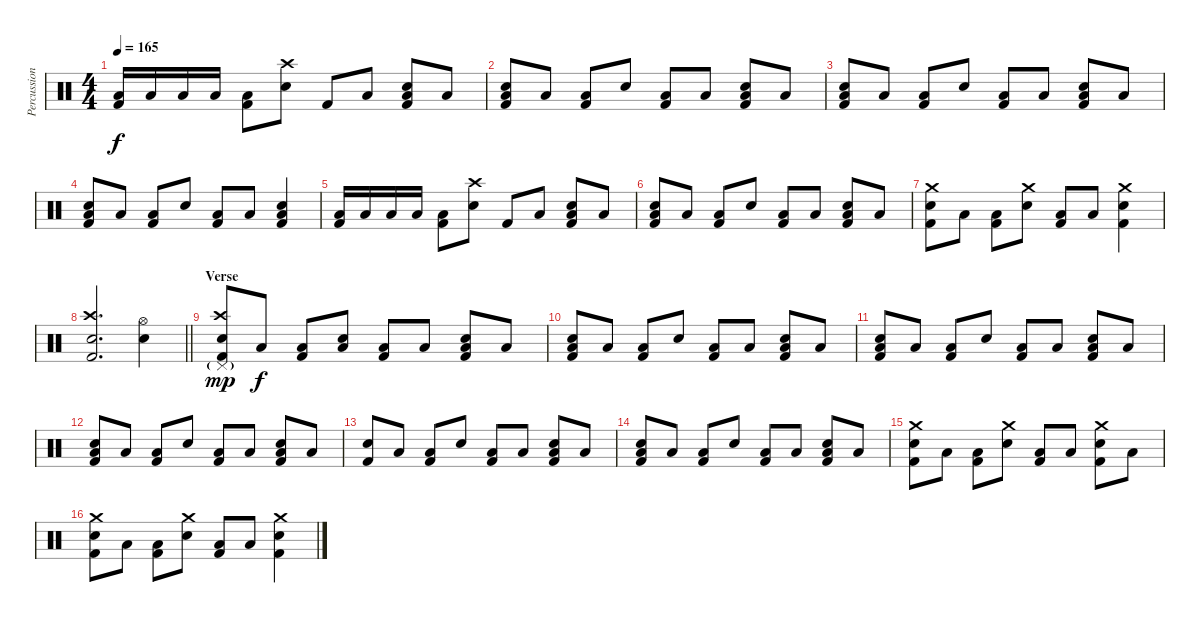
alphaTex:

\track ("Percussion" "Percussion") {instrument percussion}
\staff {score}
\articulation defaults
\ts (4 4)
\tempo 165
\clef neutral
\ks c
("Low Tom (hit)" "Kick (hit) 2").16{dy f} "Low Tom (hit)".16 "Low Tom (hit)".16 "Low Tom (hit)".16 ("Low Tom (hit)" "Kick (hit) 2").8 ("Crash high (hit)" "Electric Snare (hit)").8 "Kick (hit) 2".8 "Low Floor Tom (hit)".8 ("Electric Snare (hit)" "Low Floor Tom (hit)" "Kick (hit) 2").8 "Low Floor Tom (hit)".8 |
("Electric Snare (hit)" "Low Floor Tom (hit)" "Kick (hit) 2").8 "Low Floor Tom (hit)".8 ("Low Floor Tom (hit)" "Kick (hit) 2").8 "Electric Snare (hit)".8 ("Low Floor Tom (hit)" "Kick (hit) 2").8 "Low Floor Tom (hit)".8 ("Electric Snare (hit)" "Low Floor Tom (hit)" "Kick (hit) 2").8 "Low Floor Tom (hit)".8 |
("Electric Snare (hit)" "Low Floor Tom (hit)" "Kick (hit) 2").8 "Low Floor Tom (hit)".8 ("Low Floor Tom (hit)" "Kick (hit) 2").8 "Electric Snare (hit)".8 ("Low Floor Tom (hit)" "Kick (hit) 2").8 "Low Floor Tom (hit)".8 ("Electric Snare (hit)" "Low Floor Tom (hit)" "Kick (hit) 2").8 "Low Floor Tom (hit)".8 |
("Electric Snare (hit)" "Low Floor Tom (hit)" "Kick (hit) 2").8 "Low Floor Tom (hit)".8 ("Low Floor Tom (hit)" "Kick (hit) 2").8 "Electric Snare (hit)".8 ("Low Floor Tom (hit)" "Kick (hit) 2").8 "Low Floor Tom (hit)".8 ("Electric Snare (hit)" "Low Floor Tom (hit)" "Kick (hit) 2").4 |
("Low Tom (hit)" "Kick (hit) 2").16 "Low Tom (hit)".16 "Low Tom (hit)".16 "Low Tom (hit)".16 ("Low Tom (hit)" "Kick (hit) 2").8 ("Crash high (hit)" "Electric Snare (hit)").8 "Kick (hit) 2".8 "Low Floor Tom (hit)".8 ("Electric Snare (hit)" "Low Floor Tom (hit)" "Kick (hit) 2").8 "Low Floor Tom (hit)".8 |
("Electric Snare (hit)" "Low Floor Tom (hit)" "Kick (hit) 2").8 "Low Floor Tom (hit)".8 ("Low Floor Tom (hit)" "Kick (hit) 2").8 "Electric Snare (hit)".8 ("Low Floor Tom (hit)" "Kick (hit) 2").8 "Low Floor Tom (hit)".8 ("Electric Snare (hit)" "Low Floor Tom (hit)" "Kick (hit) 2").8 "Low Floor Tom (hit)".8 |
("Crash medium (hit)" "Electric Snare (hit)" "Kick (hit) 2").8 "Low Tom (hit)".8 ("Low Tom (hit)" "Kick (hit) 2").8 ("Crash medium (hit)" "Electric Snare (hit)").8 ("Low Tom (hit)" "Kick (hit) 2").8 "Low Tom (hit)".8 ("Crash medium (hit)" "Electric Snare (hit)" "Kick (hit) 2").4 |
\barLineRight lightlight
("Crash high (hit)" "Electric Snare (hit)" "Kick (hit) 2").2{d} ("Hi-Hat (open)" "Electric Snare (hit)").4 |
\section ("" "Verse")
("Crash high (hit)" "Pedal Hi-Hat (hit)"{g} "Electric Snare (hit)" "Kick (hit) 2").8{dy mp} "Low Floor Tom (hit)".8{dy f} ("Low Floor Tom (hit)" "Kick (hit) 2").8 ("Electric Snare (hit)" "Low Floor Tom (hit)").8 ("Low Floor Tom (hit)" "Kick (hit) 2").8 "Low Floor Tom (hit)".8 ("Electric Snare (hit)" "Low Floor Tom (hit)" "Kick (hit) 2").8 "Low Floor Tom (hit)".8 |
("Electric Snare (hit)" "Low Floor Tom (hit)" "Kick (hit) 2").8 "Low Floor Tom (hit)".8 ("Low Floor Tom (hit)" "Kick (hit) 2").8 "Electric Snare (hit)".8 ("Low Floor Tom (hit)" "Kick (hit) 2").8 "Low Floor Tom (hit)".8 ("Electric Snare (hit)" "Low Floor Tom (hit)" "Kick (hit) 2").8 "Low Floor Tom (hit)".8 |
("Electric Snare (hit)" "Low Floor Tom (hit)" "Kick (hit) 2").8 "Low Floor Tom (hit)".8 ("Low Floor Tom (hit)" "Kick (hit) 2").8 "Electric Snare (hit)".8 ("Low Floor Tom (hit)" "Kick (hit) 2").8 "Low Floor Tom (hit)".8 ("Electric Snare (hit)" "Low Floor Tom (hit)" "Kick (hit) 2").8 "Low Floor Tom (hit)".8 |
("Electric Snare (hit)" "Low Floor Tom (hit)" "Kick (hit) 2").8 "Low Floor Tom (hit)".8 ("Low Floor Tom (hit)" "Kick (hit) 2").8 "Electric Snare (hit)".8 ("Low Floor Tom (hit)" "Kick (hit) 2").8 "Low Floor Tom (hit)".8 ("Electric Snare (hit)" "Low Floor Tom (hit)" "Kick (hit) 2").8 "Low Floor Tom (hit)".8 |
("Electric Snare (hit)" "Kick (hit) 2").8 "Low Floor Tom (hit)".8 ("Low Floor Tom (hit)" "Kick (hit) 2").8 "Electric Snare (hit)".8 ("Low Floor Tom (hit)" "Kick (hit) 2").8 "Low Floor Tom (hit)".8 ("Electric Snare (hit)" "Low Floor Tom (hit)" "Kick (hit) 2").8 "Low Floor Tom (hit)".8 |
("Electric Snare (hit)" "Low Floor Tom (hit)" "Kick (hit) 2").8 "Low Floor Tom (hit)".8 ("Low Floor Tom (hit)" "Kick (hit) 2").8 "Electric Snare (hit)".8 ("Low Floor Tom (hit)" "Kick (hit) 2").8 "Low Floor Tom (hit)".8 ("Electric Snare (hit)" "Low Floor Tom (hit)" "Kick (hit) 2").8 "Low Floor Tom (hit)".8 |
("Crash medium (hit)" "Electric Snare (hit)" "Kick (hit) 2").8 "Low Tom (hit)".8 ("Low Tom (hit)" "Kick (hit) 2").8 ("Crash medium (hit)" "Electric Snare (hit)").8 ("Low Tom (hit)" "Kick (hit) 2").8 "Low Tom (hit)".8 ("Crash medium (hit)" "Electric Snare (hit)" "Kick (hit) 2").8 "Low Tom (hit)".8 |
("Crash medium (hit)" "Electric Snare (hit)" "Kick (hit) 2").8 "Low Tom (hit)".8 ("Low Tom (hit)" "Kick (hit) 2").8 ("Crash medium (hit)" "Electric Snare (hit)").8 ("Low Tom (hit)" "Kick (hit) 2").8 "Low Tom (hit)".8 ("Crash medium (hit)" "Electric Snare (hit)" "Kick (hit) 2").4
